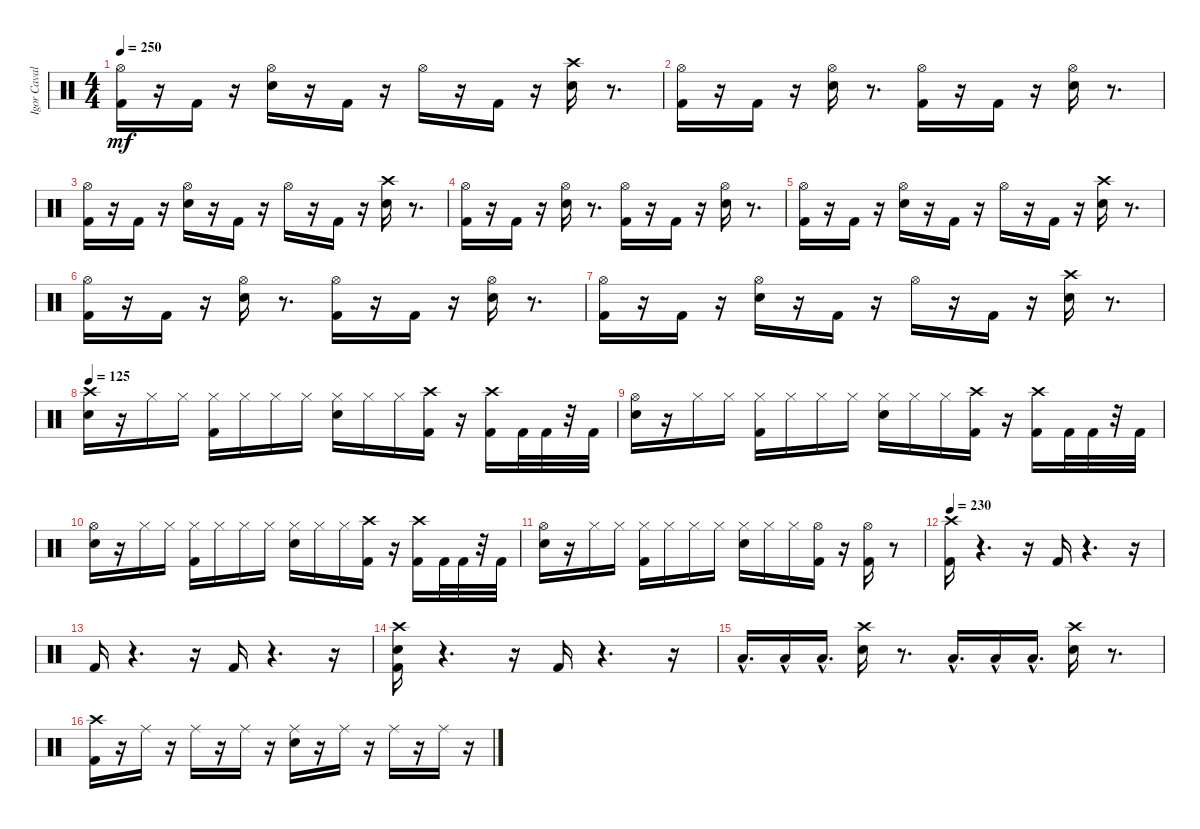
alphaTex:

\track ("Igor Cavalera" "Igor Caval") {instrument percussion}
\staff {score}
\articulation defaults
\ts (4 4)
\tempo 250
\clef neutral
\ks c
("Kick (hit) 2" "Hi-Hat (open)").16{dy mf} r.16 "Kick (hit) 2".16 r.16 ("Snare (hit) 2" "Hi-Hat (open)").16 r.16 "Kick (hit) 2".16 r.16 "Hi-Hat (open)".16 r.16 "Kick (hit) 2".16 r.16 ("Snare (hit) 2" "Crash high (hit)").16 r.8{d} |
("Kick (hit) 2" "Hi-Hat (open)").16 r.16 "Kick (hit) 2".16 r.16 ("Snare (hit) 2" "Hi-Hat (open)").16 r.8{d} ("Kick (hit) 2" "Hi-Hat (open)").16 r.16 "Kick (hit) 2".16 r.16 ("Snare (hit) 2" "Hi-Hat (open)").16 r.8{d} |
("Kick (hit) 2" "Hi-Hat (open)").16 r.16 "Kick (hit) 2".16 r.16 ("Snare (hit) 2" "Hi-Hat (open)").16 r.16 "Kick (hit) 2".16 r.16 "Hi-Hat (open)".16 r.16 "Kick (hit) 2".16 r.16 ("Crash high (hit)" "Snare (hit) 2").16 r.8{d} |
("Kick (hit) 2" "Hi-Hat (open)").16 r.16 "Kick (hit) 2".16 r.16 ("Snare (hit) 2" "Hi-Hat (open)").16 r.8{d} ("Kick (hit) 2" "Hi-Hat (open)").16 r.16 "Kick (hit) 2".16 r.16 ("Snare (hit) 2" "Hi-Hat (open)").16 r.8{d} |
("Kick (hit) 2" "Hi-Hat (open)").16 r.16 "Kick (hit) 2".16 r.16 ("Snare (hit) 2" "Hi-Hat (open)").16 r.16 "Kick (hit) 2".16 r.16 "Hi-Hat (open)".16 r.16 "Kick (hit) 2".16 r.16 ("Crash high (hit)" "Snare (hit) 2").16 r.8{d} |
("Kick (hit) 2" "Hi-Hat (open)").16 r.16 "Kick (hit) 2".16 r.16 ("Snare (hit) 2" "Hi-Hat (open)").16 r.8{d} ("Kick (hit) 2" "Hi-Hat (open)").16 r.16 "Kick (hit) 2".16 r.16 ("Snare (hit) 2" "Hi-Hat (open)").16 r.8{d} |
("Kick (hit) 2" "Hi-Hat (open)").16 r.16 "Kick (hit) 2".16 r.16 ("Snare (hit) 2" "Hi-Hat (open)").16 r.16 "Kick (hit) 2".16 r.16 "Hi-Hat (open)".16 r.16 "Kick (hit) 2".16 r.16 ("Crash high (hit)" "Snare (hit) 2").16 r.8{d} |
\tempo 125
("Crash high (hit)" "Snare (hit) 2").16 r.16 "Hi-Hat (closed)".16 "Hi-Hat (closed)".16 ("Hi-Hat (closed)" "Kick (hit) 2").16 "Hi-Hat (closed)".16 "Hi-Hat (closed)".16 "Hi-Hat (closed)".16 ("Hi-Hat (closed)" "Snare (hit) 2").16 "Hi-Hat (closed)".16 "Hi-Hat (closed)".16 ("Crash high (hit)" "Kick (hit) 2").16 r.16 ("Kick (hit) 2" "Crash high (hit)").16 "Kick (hit) 2".32 "Kick (hit) 2".32 r.32 "Kick (hit) 2".32 |
("Snare (hit) 2" "Hi-Hat (open)").16 r.16 "Hi-Hat (closed)".16 "Hi-Hat (closed)".16 ("Hi-Hat (closed)" "Kick (hit) 2").16 "Hi-Hat (closed)".16 "Hi-Hat (closed)".16 "Hi-Hat (closed)".16 ("Hi-Hat (closed)" "Snare (hit) 2").16 "Hi-Hat (closed)".16 "Hi-Hat (closed)".16 ("Crash high (hit)" "Kick (hit) 2").16 r.16 ("Kick (hit) 2" "Crash high (hit)").16 "Kick (hit) 2".32 "Kick (hit) 2".32 r.32 "Kick (hit) 2".32 |
("Snare (hit) 2" "Hi-Hat (open)").16 r.16 "Hi-Hat (closed)".16 "Hi-Hat (closed)".16 ("Hi-Hat (closed)" "Kick (hit) 2").16 "Hi-Hat (closed)".16 "Hi-Hat (closed)".16 "Hi-Hat (closed)".16 ("Hi-Hat (closed)" "Snare (hit) 2").16 "Hi-Hat (closed)".16 "Hi-Hat (closed)".16 ("Crash high (hit)" "Kick (hit) 2").16 r.16 ("Kick (hit) 2" "Crash high (hit)").16 "Kick (hit) 2".32 "Kick (hit) 2".32 r.32 "Kick (hit) 2".32 |
("Snare (hit) 2" "Hi-Hat (open)").16 r.16 "Hi-Hat (closed)".16 "Hi-Hat (closed)".16 ("Hi-Hat (closed)" "Kick (hit) 2").16 "Hi-Hat (closed)".16 "Hi-Hat (closed)".16 "Hi-Hat (closed)".16 ("Hi-Hat (closed)" "Snare (hit) 2").16 "Hi-Hat (closed)".16 "Hi-Hat (closed)".16 ("Kick (hit) 2" "Hi-Hat (open)").16 r.16 ("Kick (hit) 2" "Hi-Hat (open)").16 r.8 |
\tempo 230
("Crash high (hit)" "Kick (hit) 2").16 r.4{d} r.16 "Kick (hit) 2".16 r.4{d} r.16 |
"Kick (hit) 2".16 r.4{d} r.16 "Kick (hit) 2".16 r.4{d} r.16 |
("Crash high (hit)" "Kick (hit) 2" "Snare (hit) 2").16 r.4{d} r.16 "Kick (hit) 2".16 r.4{d} r.16 |
"Low Floor Tom (hit)"{hac}.16{d} "Low Floor Tom (hit)"{hac}.16 "Low Floor Tom (hit)"{hac}.16{d} ("Snare (hit) 2" "Crash high (hit)").16 r.8{d} "Low Floor Tom (hit)"{hac}.16{d} "Low Floor Tom (hit)"{hac}.16 "Low Floor Tom (hit)"{hac}.16{d} ("Crash high (hit)" "Snare (hit) 2").16 r.8{d} |
("Kick (hit) 2" "Crash high (hit)").16 r.16 "Ride (middle)".16 r.16 "Ride (middle)".16 r.16 "Ride (middle)".16 r.16 ("Ride (middle)" "Snare (hit) 2").16 r.16 "Ride (middle)".16 r.16 "Ride (middle)".16 r.16 "Ride (middle)".16 r.16
